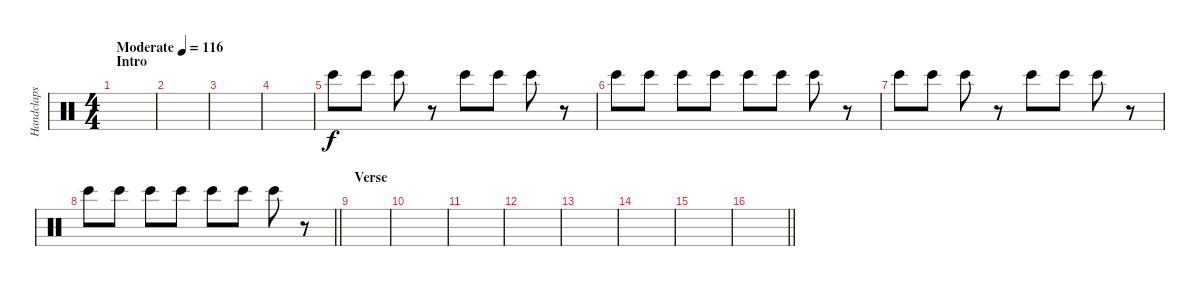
\track ("Handclaps" "Handclaps") {instrument percussion}
\staff {score}
\articulation defaults
\ts (4 4)
\section ("" "Intro")
\tempo (116 "Moderate")
\clef neutral
\ks c
|
|
|
|
"Bongo High (hit)".8 "Bongo High (hit)".8 "Bongo High (hit)".8 r.8 "Bongo High (hit)".8 "Bongo High (hit)".8 "Bongo High (hit)".8 r.8 |
"Bongo High (hit)".8 "Bongo High (hit)".8 "Bongo High (hit)".8 "Bongo High (hit)".8 "Bongo High (hit)".8 "Bongo High (hit)".8 "Bongo High (hit)".8 r.8 |
"Bongo High (hit)".8 "Bongo High (hit)".8 "Bongo High (hit)".8 r.8 "Bongo High (hit)".8 "Bongo High (hit)".8 "Bongo High (hit)".8 r.8 |
\barLineRight lightlight "Bongo High (hit)".8 "Bongo High (hit)".8 "Bongo High (hit)".8 "Bongo High (hit)".8 "Bongo High (hit)".8 "Bongo High (hit)".8 "Bongo High (hit)".8
r.8 |
\section ("" "Verse")
|
|
|
|
|
|
|
\barLineRight lightlight
